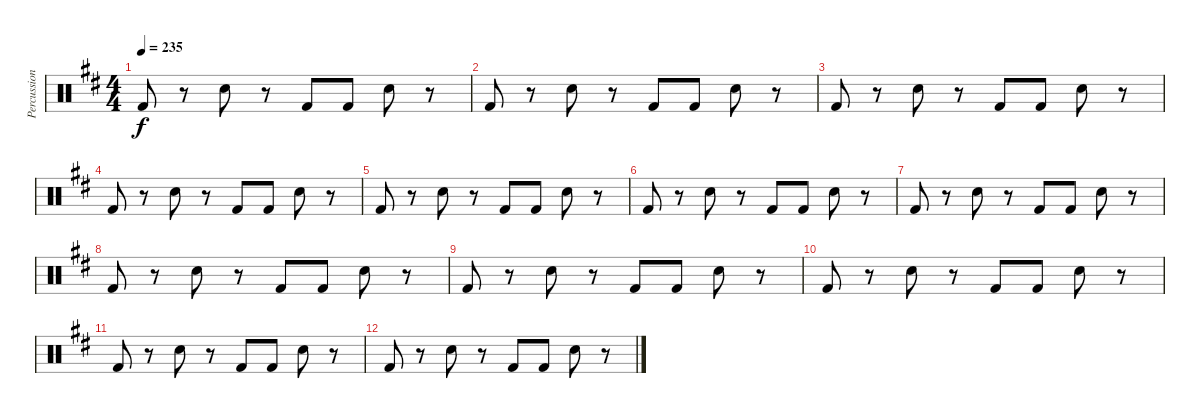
\track ("Percussion" "Percussion") {instrument percussion}
\staff {score}
\articulation defaults
\ts (4 4)
\tempo 235
\clef neutral
\ks d "Kick (hit) 2".8{dy f}
r.8 "Snare (hit) 2".8 r.8 "Kick (hit) 2".8 "Kick (hit) 2".8 "Snare (hit) 2".8 r.8 |
"Kick (hit) 2".8 r.8 "Snare (hit) 2".8 r.8 "Kick (hit) 2".8 "Kick (hit) 2".8 "Snare (hit) 2".8 r.8 |
"Kick (hit) 2".8 r.8 "Snare (hit) 2".8 r.8 "Kick (hit) 2".8 "Kick (hit) 2".8 "Snare (hit) 2".8 r.8 |
"Kick (hit) 2".8 r.8 "Snare (hit) 2".8 r.8 "Kick (hit) 2".8 "Kick (hit) 2".8 "Snare (hit) 2".8 r.8 |
"Kick (hit) 2".8 r.8 "Snare (hit) 2".8 r.8 "Kick (hit) 2".8 "Kick (hit) 2".8 "Snare (hit) 2".8 r.8 |
"Kick (hit) 2".8 r.8 "Snare (hit) 2".8 r.8 "Kick (hit) 2".8 "Kick (hit) 2".8 "Snare (hit) 2".8 r.8 |
"Kick (hit) 2".8 r.8 "Snare (hit) 2".8 r.8 "Kick (hit) 2".8 "Kick (hit) 2".8 "Snare (hit) 2".8 r.8 |
"Kick (hit) 2".8 r.8 "Snare (hit) 2".8 r.8 "Kick (hit) 2".8 "Kick (hit) 2".8 "Snare (hit) 2".8 r.8 |
"Kick (hit) 2".8 r.8 "Snare (hit) 2".8 r.8 "Kick (hit) 2".8 "Kick (hit) 2".8 "Snare (hit) 2".8 r.8 |
"Kick (hit) 2".8 r.8 "Snare (hit) 2".8 r.8 "Kick (hit) 2".8 "Kick (hit) 2".8 "Snare (hit) 2".8 r.8 |
"Kick (hit) 2".8 r.8 "Snare (hit) 2".8 r.8 "Kick (hit) 2".8 "Kick (hit) 2".8 "Snare (hit) 2".8 r.8 |
"Kick (hit) 2".8 r.8 "Snare (hit) 2".8 r.8 "Kick (hit) 2".8 "Kick (hit) 2".8 "Snare (hit) 2".8 r.8
